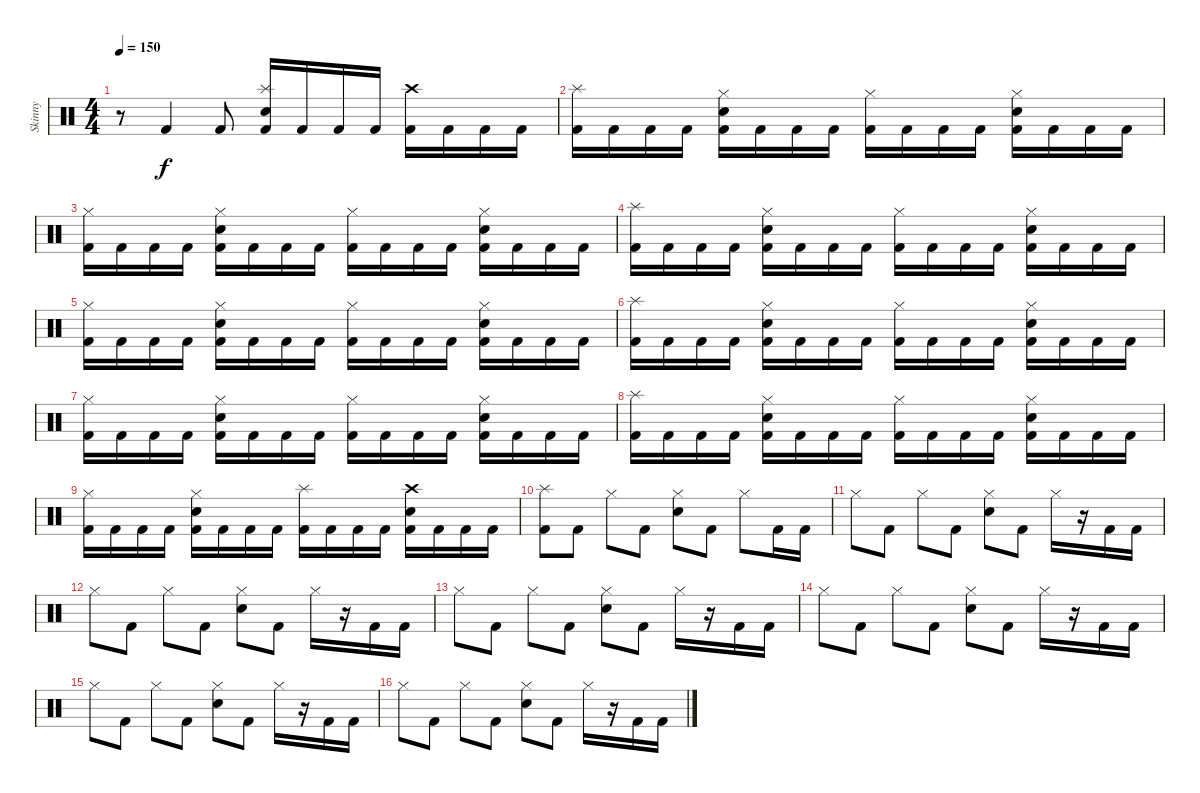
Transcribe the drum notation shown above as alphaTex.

\track ("Skinny" "Skinny") {instrument percussion}
\staff {score}
\articulation defaults
\ts (4 4)
\tempo 150
\clef neutral
\ks c
r.8{dy f} "Kick (hit) 2".4 "Kick (hit) 2".8 ("Splash (hit)" "Electric Snare (hit)" "Kick (hit) 2").16 "Kick (hit) 2".16 "Kick (hit) 2".16 "Kick (hit) 2".16 ("Crash high (hit)" "Kick (hit) 2").16 "Kick (hit) 2".16 "Kick (hit) 2".16 "Kick (hit) 2".16 |
("Splash (hit)" "Kick (hit) 2").16 "Kick (hit) 2".16 "Kick (hit) 2".16 "Kick (hit) 2".16 ("Hi-Hat (closed)" "Electric Snare (hit)" "Kick (hit) 2").16 "Kick (hit) 2".16 "Kick (hit) 2".16 "Kick (hit) 2".16 ("Hi-Hat (closed)" "Kick (hit) 2").16 "Kick (hit) 2".16 "Kick (hit) 2".16 "Kick (hit) 2".16 ("Hi-Hat (closed)" "Electric Snare (hit)" "Kick (hit) 2").16 "Kick (hit) 2".16 "Kick (hit) 2".16 "Kick (hit) 2".16 |
("Hi-Hat (closed)" "Kick (hit) 2").16 "Kick (hit) 2".16 "Kick (hit) 2".16 "Kick (hit) 2".16 ("Hi-Hat (closed)" "Electric Snare (hit)" "Kick (hit) 2").16 "Kick (hit) 2".16 "Kick (hit) 2".16 "Kick (hit) 2".16 ("Hi-Hat (closed)" "Kick (hit) 2").16 "Kick (hit) 2".16 "Kick (hit) 2".16 "Kick (hit) 2".16 ("Hi-Hat (closed)" "Electric Snare (hit)" "Kick (hit) 2").16 "Kick (hit) 2".16 "Kick (hit) 2".16 "Kick (hit) 2".16 |
("Splash (hit)" "Kick (hit) 2").16 "Kick (hit) 2".16 "Kick (hit) 2".16 "Kick (hit) 2".16 ("Hi-Hat (closed)" "Electric Snare (hit)" "Kick (hit) 2").16 "Kick (hit) 2".16 "Kick (hit) 2".16 "Kick (hit) 2".16 ("Hi-Hat (closed)" "Kick (hit) 2").16 "Kick (hit) 2".16 "Kick (hit) 2".16 "Kick (hit) 2".16 ("Hi-Hat (closed)" "Electric Snare (hit)" "Kick (hit) 2").16 "Kick (hit) 2".16 "Kick (hit) 2".16 "Kick (hit) 2".16 |
("Hi-Hat (closed)" "Kick (hit) 2").16 "Kick (hit) 2".16 "Kick (hit) 2".16 "Kick (hit) 2".16 ("Hi-Hat (closed)" "Electric Snare (hit)" "Kick (hit) 2").16 "Kick (hit) 2".16 "Kick (hit) 2".16 "Kick (hit) 2".16 ("Hi-Hat (closed)" "Kick (hit) 2").16 "Kick (hit) 2".16 "Kick (hit) 2".16 "Kick (hit) 2".16 ("Hi-Hat (closed)" "Electric Snare (hit)" "Kick (hit) 2").16 "Kick (hit) 2".16 "Kick (hit) 2".16 "Kick (hit) 2".16 |
("Splash (hit)" "Kick (hit) 2").16 "Kick (hit) 2".16 "Kick (hit) 2".16 "Kick (hit) 2".16 ("Hi-Hat (closed)" "Electric Snare (hit)" "Kick (hit) 2").16 "Kick (hit) 2".16 "Kick (hit) 2".16 "Kick (hit) 2".16 ("Hi-Hat (closed)" "Kick (hit) 2").16 "Kick (hit) 2".16 "Kick (hit) 2".16 "Kick (hit) 2".16 ("Hi-Hat (closed)" "Electric Snare (hit)" "Kick (hit) 2").16 "Kick (hit) 2".16 "Kick (hit) 2".16 "Kick (hit) 2".16 |
("Hi-Hat (closed)" "Kick (hit) 2").16 "Kick (hit) 2".16 "Kick (hit) 2".16 "Kick (hit) 2".16 ("Hi-Hat (closed)" "Electric Snare (hit)" "Kick (hit) 2").16 "Kick (hit) 2".16 "Kick (hit) 2".16 "Kick (hit) 2".16 ("Hi-Hat (closed)" "Kick (hit) 2").16 "Kick (hit) 2".16 "Kick (hit) 2".16 "Kick (hit) 2".16 ("Hi-Hat (closed)" "Electric Snare (hit)" "Kick (hit) 2").16 "Kick (hit) 2".16 "Kick (hit) 2".16 "Kick (hit) 2".16 |
("Splash (hit)" "Kick (hit) 2").16 "Kick (hit) 2".16 "Kick (hit) 2".16 "Kick (hit) 2".16 ("Hi-Hat (closed)" "Electric Snare (hit)" "Kick (hit) 2").16 "Kick (hit) 2".16 "Kick (hit) 2".16 "Kick (hit) 2".16 ("Hi-Hat (closed)" "Kick (hit) 2").16 "Kick (hit) 2".16 "Kick (hit) 2".16 "Kick (hit) 2".16 ("Hi-Hat (closed)" "Electric Snare (hit)" "Kick (hit) 2").16 "Kick (hit) 2".16 "Kick (hit) 2".16 "Kick (hit) 2".16 |
("Hi-Hat (closed)" "Kick (hit) 2").16 "Kick (hit) 2".16 "Kick (hit) 2".16 "Kick (hit) 2".16 ("Hi-Hat (closed)" "Electric Snare (hit)" "Kick (hit) 2").16 "Kick (hit) 2".16 "Kick (hit) 2".16 "Kick (hit) 2".16 ("Splash (hit)" "Kick (hit) 2").16 "Kick (hit) 2".16 "Kick (hit) 2".16 "Kick (hit) 2".16 ("Crash high (hit)" "Electric Snare (hit)" "Kick (hit) 2").16 "Kick (hit) 2".16 "Kick (hit) 2".16 "Kick (hit) 2".16 |
("Splash (hit)" "Kick (hit) 2").8 "Kick (hit) 2".8 "Hi-Hat (closed)".8 "Kick (hit) 2".8 ("Hi-Hat (closed)" "Electric Snare (hit)").8 "Kick (hit) 2".8 "Hi-Hat (closed)".8 "Kick (hit) 2".16 "Kick (hit) 2".16 |
"Hi-Hat (closed)".8 "Kick (hit) 2".8 "Hi-Hat (closed)".8 "Kick (hit) 2".8 ("Hi-Hat (closed)" "Electric Snare (hit)").8 "Kick (hit) 2".8 "Hi-Hat (closed)".16 r.16 "Kick (hit) 2".16 "Kick (hit) 2".16 |
"Hi-Hat (closed)".8 "Kick (hit) 2".8 "Hi-Hat (closed)".8 "Kick (hit) 2".8 ("Hi-Hat (closed)" "Electric Snare (hit)").8 "Kick (hit) 2".8 "Hi-Hat (closed)".16 r.16 "Kick (hit) 2".16 "Kick (hit) 2".16 |
"Hi-Hat (closed)".8 "Kick (hit) 2".8 "Hi-Hat (closed)".8 "Kick (hit) 2".8 ("Hi-Hat (closed)" "Electric Snare (hit)").8 "Kick (hit) 2".8 "Hi-Hat (closed)".16 r.16 "Kick (hit) 2".16 "Kick (hit) 2".16 |
"Hi-Hat (closed)".8 "Kick (hit) 2".8 "Hi-Hat (closed)".8 "Kick (hit) 2".8 ("Hi-Hat (closed)" "Electric Snare (hit)").8 "Kick (hit) 2".8 "Hi-Hat (closed)".16 r.16 "Kick (hit) 2".16 "Kick (hit) 2".16 |
"Hi-Hat (closed)".8 "Kick (hit) 2".8 "Hi-Hat (closed)".8 "Kick (hit) 2".8 ("Hi-Hat (closed)" "Electric Snare (hit)").8 "Kick (hit) 2".8 "Hi-Hat (closed)".16 r.16 "Kick (hit) 2".16 "Kick (hit) 2".16 |
"Hi-Hat (closed)".8 "Kick (hit) 2".8 "Hi-Hat (closed)".8 "Kick (hit) 2".8 ("Hi-Hat (closed)" "Electric Snare (hit)").8 "Kick (hit) 2".8 "Hi-Hat (closed)".16 r.16 "Kick (hit) 2".16 "Kick (hit) 2".16
